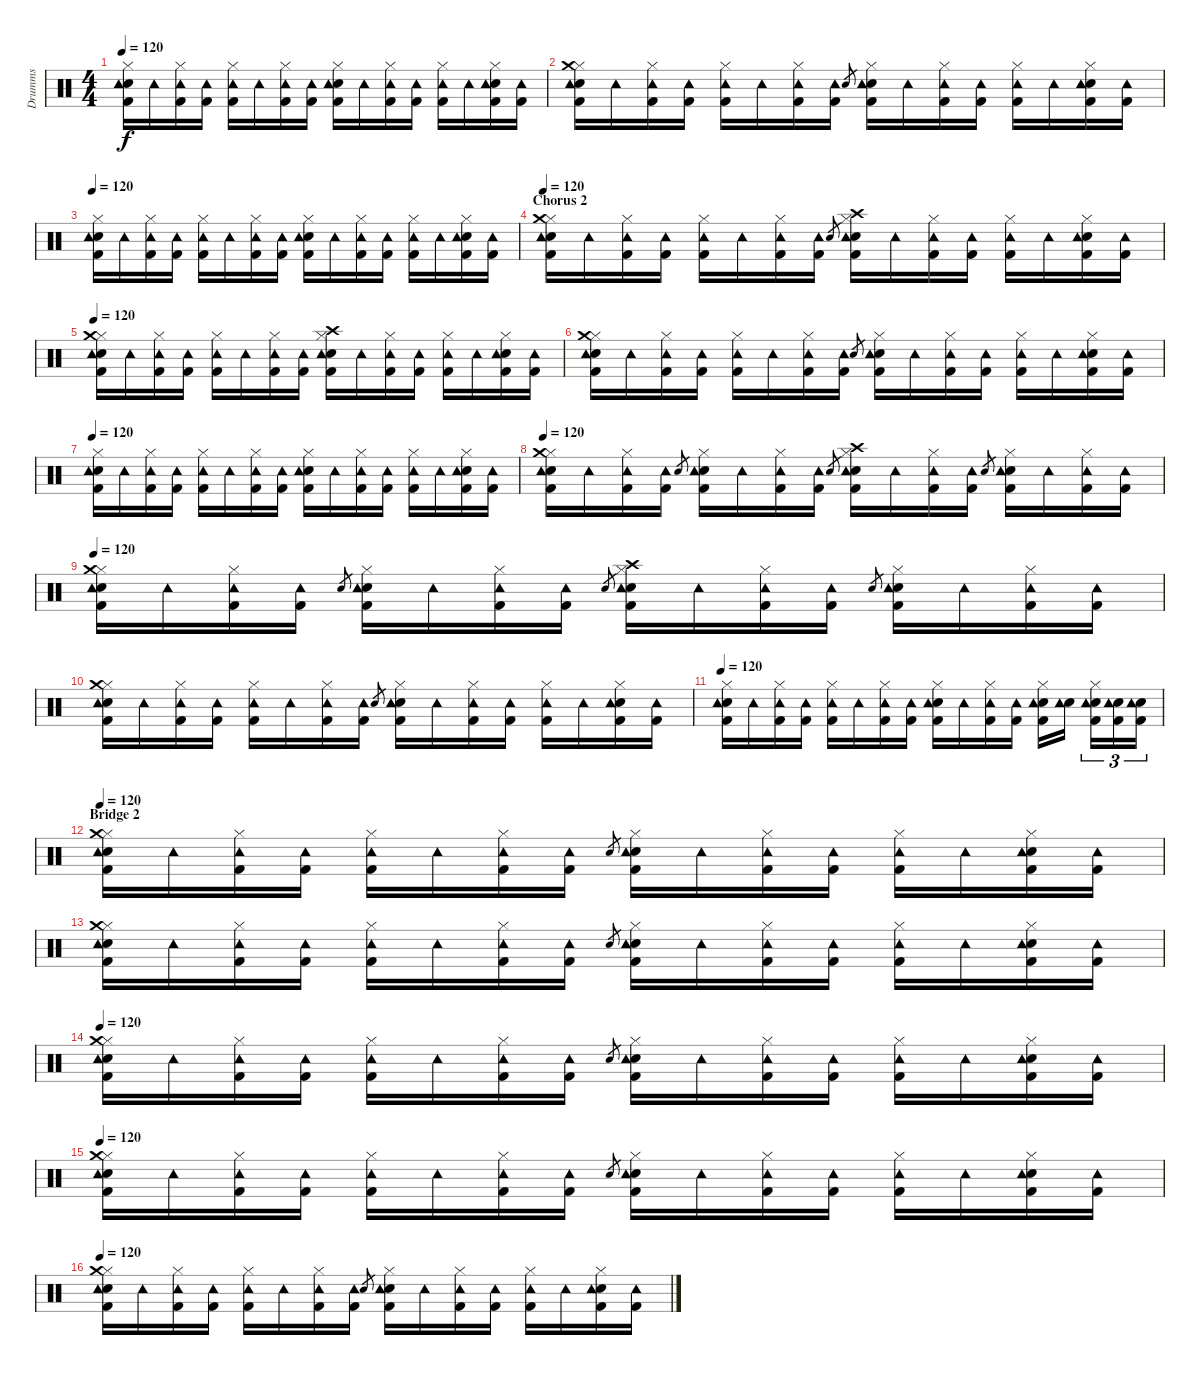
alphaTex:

\track ("Drumms" "Drumms") {instrument percussion}
\staff {score}
\articulation defaults
\ts (4 4)
\tempo 120
\clef neutral
\ks c
("Hi-Hat (closed)" "Snare (hit) 2" "Kick (hit) 2" "Tambourine (hit)").16{dy f} "Tambourine (hit)".16 ("Hi-Hat (closed)" "Kick (hit) 2" "Tambourine (hit)").16 ("Kick (hit) 2" "Tambourine (hit)").16 ("Hi-Hat (closed)" "Kick (hit) 2" "Tambourine (hit)").16 "Tambourine (hit)".16 ("Hi-Hat (closed)" "Kick (hit) 2" "Tambourine (hit)").16 ("Kick (hit) 2" "Tambourine (hit)").16 ("Hi-Hat (closed)" "Snare (hit) 2" "Kick (hit) 2" "Tambourine (hit)").16 "Tambourine (hit)".16 ("Hi-Hat (closed)" "Kick (hit) 2" "Tambourine (hit)").16 ("Kick (hit) 2" "Tambourine (hit)").16 ("Hi-Hat (closed)" "Kick (hit) 2" "Tambourine (hit)").16 "Tambourine (hit)".16 ("Hi-Hat (closed)" "Snare (hit) 2" "Kick (hit) 2" "Tambourine (hit)").16 ("Kick (hit) 2" "Tambourine (hit)").16 |
("Hi-Hat (closed)" "Snare (hit) 2" "Crash medium (hit)" "Kick (hit) 2" "Tambourine (hit)").16 "Tambourine (hit)".16 ("Hi-Hat (closed)" "Kick (hit) 2" "Tambourine (hit)").16 ("Kick (hit) 2" "Tambourine (hit)").16 ("Hi-Hat (closed)" "Kick (hit) 2" "Tambourine (hit)").16 "Tambourine (hit)".16 ("Hi-Hat (closed)" "Kick (hit) 2" "Tambourine (hit)").16 ("Kick (hit) 2" "Tambourine (hit)").16 "Snare (hit) 2".8{gr} ("Hi-Hat (closed)" "Snare (hit) 2" "Kick (hit) 2" "Tambourine (hit)").16 "Tambourine (hit)".16 ("Hi-Hat (closed)" "Kick (hit) 2" "Tambourine (hit)").16 ("Kick (hit) 2" "Tambourine (hit)").16 ("Hi-Hat (closed)" "Kick (hit) 2" "Tambourine (hit)").16 "Tambourine (hit)".16 ("Hi-Hat (closed)" "Snare (hit) 2" "Kick (hit) 2" "Tambourine (hit)").16 ("Kick (hit) 2" "Tambourine (hit)").16 |
\tempo 120
("Hi-Hat (closed)" "Snare (hit) 2" "Kick (hit) 2" "Tambourine (hit)").16 "Tambourine (hit)".16 ("Hi-Hat (closed)" "Kick (hit) 2" "Tambourine (hit)").16 ("Kick (hit) 2" "Tambourine (hit)").16 ("Hi-Hat (closed)" "Kick (hit) 2" "Tambourine (hit)").16 "Tambourine (hit)".16 ("Hi-Hat (closed)" "Kick (hit) 2" "Tambourine (hit)").16 ("Kick (hit) 2" "Tambourine (hit)").16 ("Hi-Hat (closed)" "Snare (hit) 2" "Kick (hit) 2" "Tambourine (hit)").16 "Tambourine (hit)".16 ("Hi-Hat (closed)" "Kick (hit) 2" "Tambourine (hit)").16 ("Kick (hit) 2" "Tambourine (hit)").16 ("Hi-Hat (closed)" "Kick (hit) 2" "Tambourine (hit)").16 "Tambourine (hit)".16 ("Hi-Hat (closed)" "Snare (hit) 2" "Kick (hit) 2" "Tambourine (hit)").16 ("Kick (hit) 2" "Tambourine (hit)").16 |
\section ("" "Chorus 2")
\tempo 120
("Hi-Hat (closed)" "Snare (hit) 2" "Crash medium (hit)" "Kick (hit) 2" "Tambourine (hit)").16 "Tambourine (hit)".16 ("Hi-Hat (closed)" "Kick (hit) 2" "Tambourine (hit)").16 ("Kick (hit) 2" "Tambourine (hit)").16 ("Hi-Hat (closed)" "Kick (hit) 2" "Tambourine (hit)").16 "Tambourine (hit)".16 ("Hi-Hat (closed)" "Kick (hit) 2" "Tambourine (hit)").16 ("Kick (hit) 2" "Tambourine (hit)").16 "Snare (hit) 2".8{gr} ("Hi-Hat (closed)" "Snare (hit) 2" "Crash high (hit)" "Kick (hit) 2" "Tambourine (hit)").16 "Tambourine (hit)".16 ("Hi-Hat (closed)" "Kick (hit) 2" "Tambourine (hit)").16 ("Kick (hit) 2" "Tambourine (hit)").16 ("Hi-Hat (closed)" "Kick (hit) 2" "Tambourine (hit)").16 "Tambourine (hit)".16 ("Hi-Hat (closed)" "Snare (hit) 2" "Kick (hit) 2" "Tambourine (hit)").16 ("Kick (hit) 2" "Tambourine (hit)").16 |
\tempo 120
("Hi-Hat (closed)" "Snare (hit) 2" "Crash medium (hit)" "Kick (hit) 2" "Tambourine (hit)").16 "Tambourine (hit)".16 ("Hi-Hat (closed)" "Kick (hit) 2" "Tambourine (hit)").16 ("Kick (hit) 2" "Tambourine (hit)").16 ("Hi-Hat (closed)" "Kick (hit) 2" "Tambourine (hit)").16 "Tambourine (hit)".16 ("Hi-Hat (closed)" "Kick (hit) 2" "Tambourine (hit)").16 ("Kick (hit) 2" "Tambourine (hit)").16 ("Hi-Hat (closed)" "Snare (hit) 2" "Crash high (hit)" "Kick (hit) 2" "Tambourine (hit)").16 "Tambourine (hit)".16 ("Hi-Hat (closed)" "Kick (hit) 2" "Tambourine (hit)").16 ("Kick (hit) 2" "Tambourine (hit)").16 ("Hi-Hat (closed)" "Kick (hit) 2" "Tambourine (hit)").16 "Tambourine (hit)".16 ("Hi-Hat (closed)" "Snare (hit) 2" "Kick (hit) 2" "Tambourine (hit)").16 ("Kick (hit) 2" "Tambourine (hit)").16 |
("Hi-Hat (closed)" "Snare (hit) 2" "Crash medium (hit)" "Kick (hit) 2" "Tambourine (hit)").16 "Tambourine (hit)".16 ("Hi-Hat (closed)" "Kick (hit) 2" "Tambourine (hit)").16 ("Kick (hit) 2" "Tambourine (hit)").16 ("Hi-Hat (closed)" "Kick (hit) 2" "Tambourine (hit)").16 "Tambourine (hit)".16 ("Hi-Hat (closed)" "Kick (hit) 2" "Tambourine (hit)").16 ("Kick (hit) 2" "Tambourine (hit)").16 "Snare (hit) 2".8{gr} ("Hi-Hat (closed)" "Snare (hit) 2" "Kick (hit) 2" "Tambourine (hit)").16 "Tambourine (hit)".16 ("Hi-Hat (closed)" "Kick (hit) 2" "Tambourine (hit)").16 ("Kick (hit) 2" "Tambourine (hit)").16 ("Hi-Hat (closed)" "Kick (hit) 2" "Tambourine (hit)").16 "Tambourine (hit)".16 ("Hi-Hat (closed)" "Snare (hit) 2" "Kick (hit) 2" "Tambourine (hit)").16 ("Kick (hit) 2" "Tambourine (hit)").16 |
\tempo 120
("Hi-Hat (closed)" "Snare (hit) 2" "Kick (hit) 2" "Tambourine (hit)").16 "Tambourine (hit)".16 ("Hi-Hat (closed)" "Kick (hit) 2" "Tambourine (hit)").16 ("Kick (hit) 2" "Tambourine (hit)").16 ("Hi-Hat (closed)" "Kick (hit) 2" "Tambourine (hit)").16 "Tambourine (hit)".16 ("Hi-Hat (closed)" "Kick (hit) 2" "Tambourine (hit)").16 ("Kick (hit) 2" "Tambourine (hit)").16 ("Hi-Hat (closed)" "Snare (hit) 2" "Kick (hit) 2" "Tambourine (hit)").16 "Tambourine (hit)".16 ("Hi-Hat (closed)" "Kick (hit) 2" "Tambourine (hit)").16 ("Kick (hit) 2" "Tambourine (hit)").16 ("Hi-Hat (closed)" "Kick (hit) 2" "Tambourine (hit)").16 "Tambourine (hit)".16 ("Hi-Hat (closed)" "Snare (hit) 2" "Kick (hit) 2" "Tambourine (hit)").16 ("Kick (hit) 2" "Tambourine (hit)").16 |
\tempo 120
("Hi-Hat (closed)" "Snare (hit) 2" "Crash medium (hit)" "Kick (hit) 2" "Tambourine (hit)").16 "Tambourine (hit)".16 ("Hi-Hat (closed)" "Kick (hit) 2" "Tambourine (hit)").16 ("Kick (hit) 2" "Tambourine (hit)").16 "Snare (hit) 2".8{gr} ("Hi-Hat (closed)" "Snare (hit) 2" "Kick (hit) 2" "Tambourine (hit)").16 "Tambourine (hit)".16 ("Hi-Hat (closed)" "Kick (hit) 2" "Tambourine (hit)").16 ("Kick (hit) 2" "Tambourine (hit)").16 "Snare (hit) 2".8{gr} ("Hi-Hat (closed)" "Snare (hit) 2" "Crash high (hit)" "Kick (hit) 2" "Tambourine (hit)").16 "Tambourine (hit)".16 ("Hi-Hat (closed)" "Kick (hit) 2" "Tambourine (hit)").16 ("Kick (hit) 2" "Tambourine (hit)").16 "Snare (hit) 2".8{gr} ("Hi-Hat (closed)" "Snare (hit) 2" "Kick (hit) 2" "Tambourine (hit)").16 "Tambourine (hit)".16 ("Hi-Hat (closed)" "Kick (hit) 2" "Tambourine (hit)").16 ("Kick (hit) 2" "Tambourine (hit)").16 |
\tempo 120
("Hi-Hat (closed)" "Snare (hit) 2" "Crash medium (hit)" "Kick (hit) 2" "Tambourine (hit)").16 "Tambourine (hit)".16 ("Hi-Hat (closed)" "Kick (hit) 2" "Tambourine (hit)").16 ("Kick (hit) 2" "Tambourine (hit)").16 "Snare (hit) 2".8{gr} ("Hi-Hat (closed)" "Snare (hit) 2" "Kick (hit) 2" "Tambourine (hit)").16 "Tambourine (hit)".16 ("Hi-Hat (closed)" "Kick (hit) 2" "Tambourine (hit)").16 ("Kick (hit) 2" "Tambourine (hit)").16 "Snare (hit) 2".8{gr} ("Hi-Hat (closed)" "Snare (hit) 2" "Crash high (hit)" "Kick (hit) 2" "Tambourine (hit)").16 "Tambourine (hit)".16 ("Hi-Hat (closed)" "Kick (hit) 2" "Tambourine (hit)").16 ("Kick (hit) 2" "Tambourine (hit)").16 "Snare (hit) 2".8{gr} ("Hi-Hat (closed)" "Snare (hit) 2" "Kick (hit) 2" "Tambourine (hit)").16 "Tambourine (hit)".16 ("Hi-Hat (closed)" "Kick (hit) 2" "Tambourine (hit)").16 ("Kick (hit) 2" "Tambourine (hit)").16 |
("Hi-Hat (closed)" "Snare (hit) 2" "Crash medium (hit)" "Kick (hit) 2" "Tambourine (hit)").16 "Tambourine (hit)".16 ("Hi-Hat (closed)" "Kick (hit) 2" "Tambourine (hit)").16 ("Kick (hit) 2" "Tambourine (hit)").16 ("Hi-Hat (closed)" "Kick (hit) 2" "Tambourine (hit)").16 "Tambourine (hit)".16 ("Hi-Hat (closed)" "Kick (hit) 2" "Tambourine (hit)").16 ("Kick (hit) 2" "Tambourine (hit)").16 "Snare (hit) 2".8{gr} ("Hi-Hat (closed)" "Snare (hit) 2" "Kick (hit) 2" "Tambourine (hit)").16 "Tambourine (hit)".16 ("Hi-Hat (closed)" "Kick (hit) 2" "Tambourine (hit)").16 ("Kick (hit) 2" "Tambourine (hit)").16 ("Hi-Hat (closed)" "Kick (hit) 2" "Tambourine (hit)").16 "Tambourine (hit)".16 ("Hi-Hat (closed)" "Snare (hit) 2" "Kick (hit) 2" "Tambourine (hit)").16 ("Kick (hit) 2" "Tambourine (hit)").16 |
\tempo 120
("Hi-Hat (closed)" "Snare (hit) 2" "Kick (hit) 2" "Tambourine (hit)").16 "Tambourine (hit)".16 ("Hi-Hat (closed)" "Kick (hit) 2" "Tambourine (hit)").16 ("Kick (hit) 2" "Tambourine (hit)").16 ("Hi-Hat (closed)" "Kick (hit) 2" "Tambourine (hit)").16 "Tambourine (hit)".16 ("Hi-Hat (closed)" "Kick (hit) 2" "Tambourine (hit)").16 ("Kick (hit) 2" "Tambourine (hit)").16 ("Hi-Hat (closed)" "Snare (hit) 2" "Kick (hit) 2" "Tambourine (hit)").16 "Tambourine (hit)".16 ("Hi-Hat (closed)" "Kick (hit) 2" "Tambourine (hit)").16 ("Kick (hit) 2" "Tambourine (hit)").16 ("Hi-Hat (closed)" "Snare (hit) 2" "Kick (hit) 2" "Tambourine (hit)").16 ("Snare (hit) 2" "Tambourine (hit)").16 ("Hi-Hat (closed)" "Snare (hit) 2" "Kick (hit) 2" "Tambourine (hit)").16{tu (3 2)} ("Snare (hit) 2" "Kick (hit) 2" "Tambourine (hit)").16{tu (3 2)} ("Snare (hit) 2" "Kick (hit) 2" "Tambourine (hit)").16{tu (3 2)} |
\section ("" "Bridge 2")
\tempo 120
("Hi-Hat (closed)" "Snare (hit) 2" "Crash medium (hit)" "Kick (hit) 2" "Tambourine (hit)").16 "Tambourine (hit)".16 ("Hi-Hat (closed)" "Kick (hit) 2" "Tambourine (hit)").16 ("Kick (hit) 2" "Tambourine (hit)").16 ("Hi-Hat (closed)" "Kick (hit) 2" "Tambourine (hit)").16 "Tambourine (hit)".16 ("Hi-Hat (closed)" "Kick (hit) 2" "Tambourine (hit)").16 ("Kick (hit) 2" "Tambourine (hit)").16 "Snare (hit) 2".8{gr} ("Hi-Hat (closed)" "Snare (hit) 2" "Kick (hit) 2" "Tambourine (hit)").16 "Tambourine (hit)".16 ("Hi-Hat (closed)" "Kick (hit) 2" "Tambourine (hit)").16 ("Kick (hit) 2" "Tambourine (hit)").16 ("Hi-Hat (closed)" "Kick (hit) 2" "Tambourine (hit)").16 "Tambourine (hit)".16 ("Hi-Hat (closed)" "Snare (hit) 2" "Kick (hit) 2" "Tambourine (hit)").16 ("Kick (hit) 2" "Tambourine (hit)").16 |
("Hi-Hat (closed)" "Snare (hit) 2" "Crash medium (hit)" "Kick (hit) 2" "Tambourine (hit)").16 "Tambourine (hit)".16 ("Hi-Hat (closed)" "Kick (hit) 2" "Tambourine (hit)").16 ("Kick (hit) 2" "Tambourine (hit)").16 ("Hi-Hat (closed)" "Kick (hit) 2" "Tambourine (hit)").16 "Tambourine (hit)".16 ("Hi-Hat (closed)" "Kick (hit) 2" "Tambourine (hit)").16 ("Kick (hit) 2" "Tambourine (hit)").16 "Snare (hit) 2".8{gr} ("Hi-Hat (closed)" "Snare (hit) 2" "Kick (hit) 2" "Tambourine (hit)").16 "Tambourine (hit)".16 ("Hi-Hat (closed)" "Kick (hit) 2" "Tambourine (hit)").16 ("Kick (hit) 2" "Tambourine (hit)").16 ("Hi-Hat (closed)" "Kick (hit) 2" "Tambourine (hit)").16 "Tambourine (hit)".16 ("Hi-Hat (closed)" "Snare (hit) 2" "Kick (hit) 2" "Tambourine (hit)").16 ("Kick (hit) 2" "Tambourine (hit)").16 |
\tempo 120
("Hi-Hat (closed)" "Snare (hit) 2" "Crash medium (hit)" "Kick (hit) 2" "Tambourine (hit)").16 "Tambourine (hit)".16 ("Hi-Hat (closed)" "Kick (hit) 2" "Tambourine (hit)").16 ("Kick (hit) 2" "Tambourine (hit)").16 ("Hi-Hat (closed)" "Kick (hit) 2" "Tambourine (hit)").16 "Tambourine (hit)".16 ("Hi-Hat (closed)" "Kick (hit) 2" "Tambourine (hit)").16 ("Kick (hit) 2" "Tambourine (hit)").16 "Snare (hit) 2".8{gr} ("Hi-Hat (closed)" "Snare (hit) 2" "Kick (hit) 2" "Tambourine (hit)").16 "Tambourine (hit)".16 ("Hi-Hat (closed)" "Kick (hit) 2" "Tambourine (hit)").16 ("Kick (hit) 2" "Tambourine (hit)").16 ("Hi-Hat (closed)" "Kick (hit) 2" "Tambourine (hit)").16 "Tambourine (hit)".16 ("Hi-Hat (closed)" "Snare (hit) 2" "Kick (hit) 2" "Tambourine (hit)").16 ("Kick (hit) 2" "Tambourine (hit)").16 |
\tempo 120
("Hi-Hat (closed)" "Snare (hit) 2" "Crash medium (hit)" "Kick (hit) 2" "Tambourine (hit)").16 "Tambourine (hit)".16 ("Hi-Hat (closed)" "Kick (hit) 2" "Tambourine (hit)").16 ("Kick (hit) 2" "Tambourine (hit)").16 ("Hi-Hat (closed)" "Kick (hit) 2" "Tambourine (hit)").16 "Tambourine (hit)".16 ("Hi-Hat (closed)" "Kick (hit) 2" "Tambourine (hit)").16 ("Kick (hit) 2" "Tambourine (hit)").16 "Snare (hit) 2".8{gr} ("Hi-Hat (closed)" "Snare (hit) 2" "Kick (hit) 2" "Tambourine (hit)").16 "Tambourine (hit)".16 ("Hi-Hat (closed)" "Kick (hit) 2" "Tambourine (hit)").16 ("Kick (hit) 2" "Tambourine (hit)").16 ("Hi-Hat (closed)" "Kick (hit) 2" "Tambourine (hit)").16 "Tambourine (hit)".16 ("Hi-Hat (closed)" "Snare (hit) 2" "Kick (hit) 2" "Tambourine (hit)").16 ("Kick (hit) 2" "Tambourine (hit)").16 |
\tempo 120
("Hi-Hat (closed)" "Snare (hit) 2" "Crash medium (hit)" "Kick (hit) 2" "Tambourine (hit)").16 "Tambourine (hit)".16 ("Hi-Hat (closed)" "Kick (hit) 2" "Tambourine (hit)").16 ("Kick (hit) 2" "Tambourine (hit)").16 ("Hi-Hat (closed)" "Kick (hit) 2" "Tambourine (hit)").16 "Tambourine (hit)".16 ("Hi-Hat (closed)" "Kick (hit) 2" "Tambourine (hit)").16 ("Kick (hit) 2" "Tambourine (hit)").16 "Snare (hit) 2".8{gr} ("Hi-Hat (closed)" "Snare (hit) 2" "Kick (hit) 2" "Tambourine (hit)").16 "Tambourine (hit)".16 ("Hi-Hat (closed)" "Kick (hit) 2" "Tambourine (hit)").16 ("Kick (hit) 2" "Tambourine (hit)").16 ("Hi-Hat (closed)" "Kick (hit) 2" "Tambourine (hit)").16 "Tambourine (hit)".16 ("Hi-Hat (closed)" "Snare (hit) 2" "Kick (hit) 2" "Tambourine (hit)").16 ("Kick (hit) 2" "Tambourine (hit)").16
